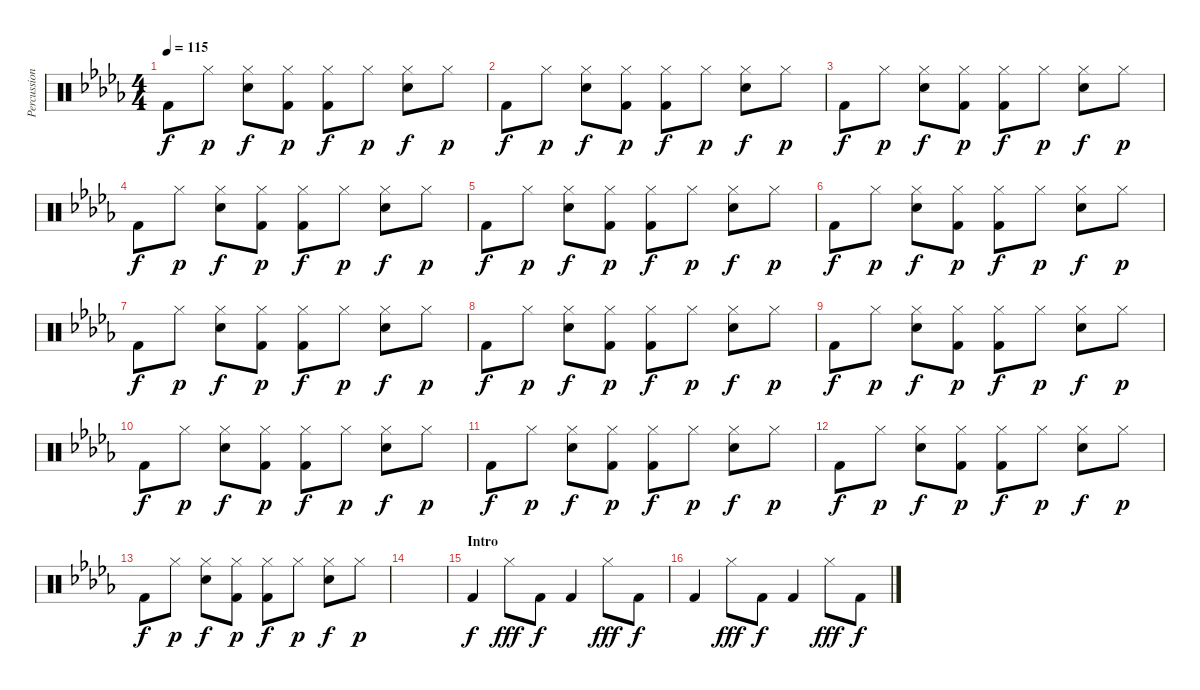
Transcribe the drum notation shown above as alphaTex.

\track ("Percussion" "Percussion") {instrument percussion}
\staff {score}
\articulation defaults
\ts (4 4)
\tempo 115
\clef neutral
\ks db "Kick (hit) 2".8{dy f} "Hi-Hat (closed)".8{dy p}
("Hi-Hat (closed)" "Hand Clap (hit)").8{dy f} ("Hi-Hat (closed)" "Kick (hit) 2").8{dy p} ("Kick (hit) 2" "Hi-Hat (closed)").8{dy f} "Hi-Hat (closed)".8{dy p} ("Hand Clap (hit)" "Hi-Hat (closed)").8{dy f} "Hi-Hat (closed)".8{dy p} |
"Kick (hit) 2".8{dy f} "Hi-Hat (closed)".8{dy p} ("Hi-Hat (closed)" "Hand Clap (hit)").8{dy f} ("Hi-Hat (closed)" "Kick (hit) 2").8{dy p} ("Kick (hit) 2" "Hi-Hat (closed)").8{dy f} "Hi-Hat (closed)".8{dy p} ("Hand Clap (hit)" "Hi-Hat (closed)").8{dy f} "Hi-Hat (closed)".8{dy p} |
"Kick (hit) 2".8{dy f} "Hi-Hat (closed)".8{dy p} ("Hi-Hat (closed)" "Hand Clap (hit)").8{dy f} ("Hi-Hat (closed)" "Kick (hit) 2").8{dy p} ("Kick (hit) 2" "Hi-Hat (closed)").8{dy f} "Hi-Hat (closed)".8{dy p} ("Hand Clap (hit)" "Hi-Hat (closed)").8{dy f} "Hi-Hat (closed)".8{dy p} |
"Kick (hit) 2".8{dy f} "Hi-Hat (closed)".8{dy p} ("Hi-Hat (closed)" "Hand Clap (hit)").8{dy f} ("Hi-Hat (closed)" "Kick (hit) 2").8{dy p} ("Kick (hit) 2" "Hi-Hat (closed)").8{dy f} "Hi-Hat (closed)".8{dy p} ("Hand Clap (hit)" "Hi-Hat (closed)").8{dy f} "Hi-Hat (closed)".8{dy p} |
"Kick (hit) 2".8{dy f} "Hi-Hat (closed)".8{dy p} ("Hi-Hat (closed)" "Hand Clap (hit)").8{dy f} ("Hi-Hat (closed)" "Kick (hit) 2").8{dy p} ("Kick (hit) 2" "Hi-Hat (closed)").8{dy f} "Hi-Hat (closed)".8{dy p} ("Hand Clap (hit)" "Hi-Hat (closed)").8{dy f} "Hi-Hat (closed)".8{dy p} |
"Kick (hit) 2".8{dy f} "Hi-Hat (closed)".8{dy p} ("Hi-Hat (closed)" "Hand Clap (hit)").8{dy f} ("Hi-Hat (closed)" "Kick (hit) 2").8{dy p} ("Kick (hit) 2" "Hi-Hat (closed)").8{dy f} "Hi-Hat (closed)".8{dy p} ("Hand Clap (hit)" "Hi-Hat (closed)").8{dy f} "Hi-Hat (closed)".8{dy p} |
"Kick (hit) 2".8{dy f} "Hi-Hat (closed)".8{dy p} ("Hi-Hat (closed)" "Hand Clap (hit)").8{dy f} ("Hi-Hat (closed)" "Kick (hit) 2").8{dy p} ("Kick (hit) 2" "Hi-Hat (closed)").8{dy f} "Hi-Hat (closed)".8{dy p} ("Hand Clap (hit)" "Hi-Hat (closed)").8{dy f} "Hi-Hat (closed)".8{dy p} |
"Kick (hit) 2".8{dy f} "Hi-Hat (closed)".8{dy p} ("Hi-Hat (closed)" "Hand Clap (hit)").8{dy f} ("Hi-Hat (closed)" "Kick (hit) 2").8{dy p} ("Kick (hit) 2" "Hi-Hat (closed)").8{dy f} "Hi-Hat (closed)".8{dy p} ("Hand Clap (hit)" "Hi-Hat (closed)").8{dy f} "Hi-Hat (closed)".8{dy p} |
"Kick (hit) 2".8{dy f} "Hi-Hat (closed)".8{dy p} ("Hi-Hat (closed)" "Hand Clap (hit)").8{dy f} ("Hi-Hat (closed)" "Kick (hit) 2").8{dy p} ("Kick (hit) 2" "Hi-Hat (closed)").8{dy f} "Hi-Hat (closed)".8{dy p} ("Hand Clap (hit)" "Hi-Hat (closed)").8{dy f} "Hi-Hat (closed)".8{dy p} |
"Kick (hit) 2".8{dy f} "Hi-Hat (closed)".8{dy p} ("Hi-Hat (closed)" "Hand Clap (hit)").8{dy f} ("Hi-Hat (closed)" "Kick (hit) 2").8{dy p} ("Kick (hit) 2" "Hi-Hat (closed)").8{dy f} "Hi-Hat (closed)".8{dy p} ("Hand Clap (hit)" "Hi-Hat (closed)").8{dy f} "Hi-Hat (closed)".8{dy p} |
"Kick (hit) 2".8{dy f} "Hi-Hat (closed)".8{dy p} ("Hi-Hat (closed)" "Hand Clap (hit)").8{dy f} ("Hi-Hat (closed)" "Kick (hit) 2").8{dy p} ("Kick (hit) 2" "Hi-Hat (closed)").8{dy f} "Hi-Hat (closed)".8{dy p} ("Hand Clap (hit)" "Hi-Hat (closed)").8{dy f} "Hi-Hat (closed)".8{dy p} |
"Kick (hit) 2".8{dy f} "Hi-Hat (closed)".8{dy p} ("Hi-Hat (closed)" "Hand Clap (hit)").8{dy f} ("Hi-Hat (closed)" "Kick (hit) 2").8{dy p} ("Kick (hit) 2" "Hi-Hat (closed)").8{dy f} "Hi-Hat (closed)".8{dy p} ("Hand Clap (hit)" "Hi-Hat (closed)").8{dy f} "Hi-Hat (closed)".8{dy p} |
"Kick (hit) 2".8{dy f} "Hi-Hat (closed)".8{dy p} ("Hi-Hat (closed)" "Hand Clap (hit)").8{dy f} ("Hi-Hat (closed)" "Kick (hit) 2").8{dy p} ("Kick (hit) 2" "Hi-Hat (closed)").8{dy f} "Hi-Hat (closed)".8{dy p} ("Hand Clap (hit)" "Hi-Hat (closed)").8{dy f} "Hi-Hat (closed)".8{dy p} |
|
\section ("" "Intro")
"Kick (hit) 2".4{dy f} "Hi-Hat (closed)".8{dy fff} "Kick (hit) 2".8{dy f} "Kick (hit) 2".4 "Hi-Hat (closed)".8{dy fff} "Kick (hit) 2".8{dy f} |
"Kick (hit) 2".4 "Hi-Hat (closed)".8{dy fff} "Kick (hit) 2".8{dy f} "Kick (hit) 2".4 "Hi-Hat (closed)".8{dy fff} "Kick (hit) 2".8{dy f}
